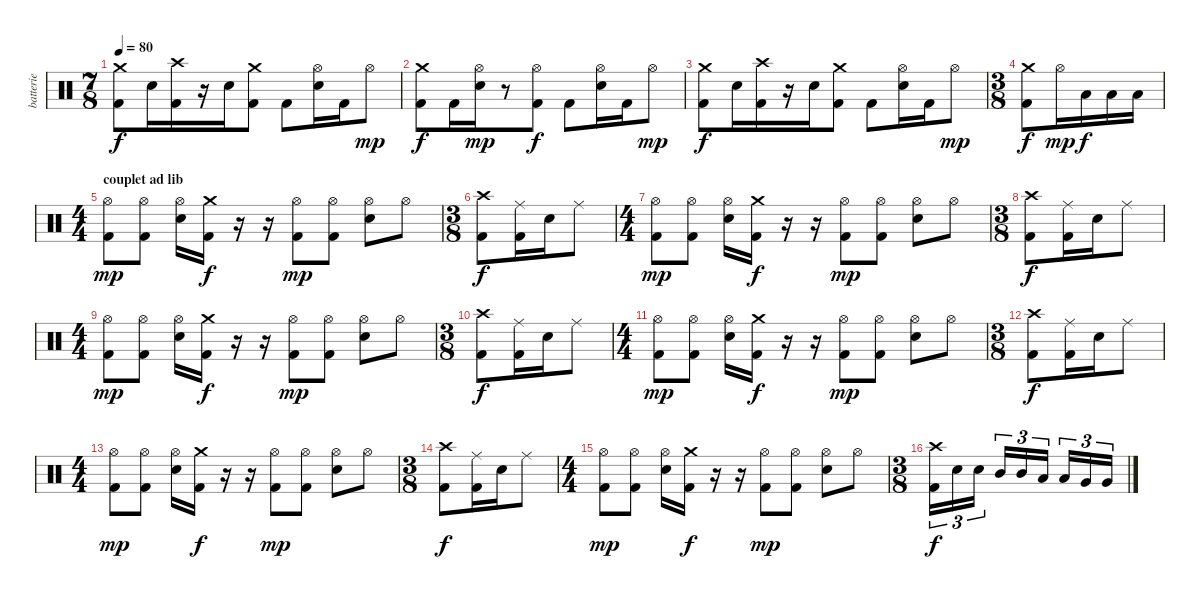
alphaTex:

\track ("batterie" "batterie") {instrument percussion}
\staff {score}
\articulation defaults
\ts (7 8)
\tempo 80
\clef neutral
\ks c
("Crash medium (hit)" "Kick (hit) 2").8{dy f} "Electric Snare (hit)".16 ("Crash high (hit)" "Kick (hit) 2").16 r.16 "Electric Snare (hit)".16 ("Crash medium (hit)" "Kick (hit) 2").8 "Kick (hit) 2".8 ("Hi-Hat (open)" "Electric Snare (hit)").16 "Kick (hit) 2".16 "Hi-Hat (open)".8{dy mp} |
("Crash medium (hit)" "Kick (hit) 2").8{dy f} "Kick (hit) 2".16 ("Hi-Hat (open)" "Electric Snare (hit)").16{dy mp} r.8 ("Hi-Hat (open)" "Kick (hit) 2").8{dy f} "Kick (hit) 2".8 ("Hi-Hat (open)" "Electric Snare (hit)").16 "Kick (hit) 2".16 "Hi-Hat (open)".8{dy mp} |
("Crash medium (hit)" "Kick (hit) 2").8{dy f} "Electric Snare (hit)".16 ("Crash high (hit)" "Kick (hit) 2").16 r.16 "Electric Snare (hit)".16 ("Crash medium (hit)" "Kick (hit) 2").8 "Kick (hit) 2".8 ("Hi-Hat (open)" "Electric Snare (hit)").16 "Kick (hit) 2".16 "Hi-Hat (open)".8{dy mp} |
\ts (3 8)
("Crash medium (hit)" "Kick (hit) 2").8{dy f} "Hi-Hat (open)".16{dy mp} "Low Tom (hit)".16{dy f} "Low Tom (hit)".16 "Low Tom (hit)".16 |
\ts (4 4)
\section ("" "couplet ad lib")
("Hi-Hat (open)" "Kick (hit) 2").8{dy mp} ("Hi-Hat (open)" "Kick (hit) 2").8 ("Hi-Hat (open)" "Electric Snare (hit)").16 ("Crash medium (hit)" "Kick (hit) 2").16{dy f} r.16 r.16 ("Hi-Hat (open)" "Kick (hit) 2").8{dy mp} ("Hi-Hat (open)" "Kick (hit) 2").8 ("Hi-Hat (open)" "Electric Snare (hit)").8 "Hi-Hat (open)".8 |
\ts (3 8)
("Crash high (hit)" "Kick (hit) 2").8{dy f} ("Ride (middle)" "Kick (hit) 2").16 "Electric Snare (hit)".16 "Ride (middle)".8 |
\ts (4 4)
("Hi-Hat (open)" "Kick (hit) 2").8{dy mp} ("Hi-Hat (open)" "Kick (hit) 2").8 ("Hi-Hat (open)" "Electric Snare (hit)").16 ("Crash medium (hit)" "Kick (hit) 2").16{dy f} r.16 r.16 ("Hi-Hat (open)" "Kick (hit) 2").8{dy mp} ("Hi-Hat (open)" "Kick (hit) 2").8 ("Hi-Hat (open)" "Electric Snare (hit)").8 "Hi-Hat (open)".8 |
\ts (3 8)
("Crash high (hit)" "Kick (hit) 2").8{dy f} ("Ride (middle)" "Kick (hit) 2").16 "Electric Snare (hit)".16 "Ride (middle)".8 |
\ts (4 4)
("Hi-Hat (open)" "Kick (hit) 2").8{dy mp} ("Hi-Hat (open)" "Kick (hit) 2").8 ("Hi-Hat (open)" "Electric Snare (hit)").16 ("Crash medium (hit)" "Kick (hit) 2").16{dy f} r.16 r.16 ("Hi-Hat (open)" "Kick (hit) 2").8{dy mp} ("Hi-Hat (open)" "Kick (hit) 2").8 ("Hi-Hat (open)" "Electric Snare (hit)").8 "Hi-Hat (open)".8 |
\ts (3 8)
("Crash high (hit)" "Kick (hit) 2").8{dy f} ("Ride (middle)" "Kick (hit) 2").16 "Electric Snare (hit)".16 "Ride (middle)".8 |
\ts (4 4)
("Hi-Hat (open)" "Kick (hit) 2").8{dy mp} ("Hi-Hat (open)" "Kick (hit) 2").8 ("Hi-Hat (open)" "Electric Snare (hit)").16 ("Crash medium (hit)" "Kick (hit) 2").16{dy f} r.16 r.16 ("Hi-Hat (open)" "Kick (hit) 2").8{dy mp} ("Hi-Hat (open)" "Kick (hit) 2").8 ("Hi-Hat (open)" "Electric Snare (hit)").8 "Hi-Hat (open)".8 |
\ts (3 8)
("Crash high (hit)" "Kick (hit) 2").8{dy f} ("Ride (middle)" "Kick (hit) 2").16 "Electric Snare (hit)".16 "Ride (middle)".8 |
\ts (4 4)
("Hi-Hat (open)" "Kick (hit) 2").8{dy mp} ("Hi-Hat (open)" "Kick (hit) 2").8 ("Hi-Hat (open)" "Electric Snare (hit)").16 ("Crash medium (hit)" "Kick (hit) 2").16{dy f} r.16 r.16 ("Hi-Hat (open)" "Kick (hit) 2").8{dy mp} ("Hi-Hat (open)" "Kick (hit) 2").8 ("Hi-Hat (open)" "Electric Snare (hit)").8 "Hi-Hat (open)".8 |
\ts (3 8)
("Crash high (hit)" "Kick (hit) 2").8{dy f} ("Ride (middle)" "Kick (hit) 2").16 "Electric Snare (hit)".16 "Ride (middle)".8 |
\ts (4 4)
("Hi-Hat (open)" "Kick (hit) 2").8{dy mp} ("Hi-Hat (open)" "Kick (hit) 2").8 ("Hi-Hat (open)" "Electric Snare (hit)").16 ("Crash medium (hit)" "Kick (hit) 2").16{dy f} r.16 r.16 ("Hi-Hat (open)" "Kick (hit) 2").8{dy mp} ("Hi-Hat (open)" "Kick (hit) 2").8 ("Hi-Hat (open)" "Electric Snare (hit)").8 "Hi-Hat (open)".8 |
\ts (3 8)
("Crash high (hit)" "Kick (hit) 2").16{tu (3 2) dy f} "Electric Snare (hit)".16{tu (3 2)} "Electric Snare (hit)".16{tu (3 2)} "Mid Tom (hit)".16{tu (3 2)} "Mid Tom (hit)".16{tu (3 2)} "Low Tom (hit)".16{tu (3 2)} "Low Tom (hit)".16{tu (3 2)} "Very Low Tom (hit)".16{tu (3 2)} "Very Low Tom (hit)".16{tu (3 2)}
